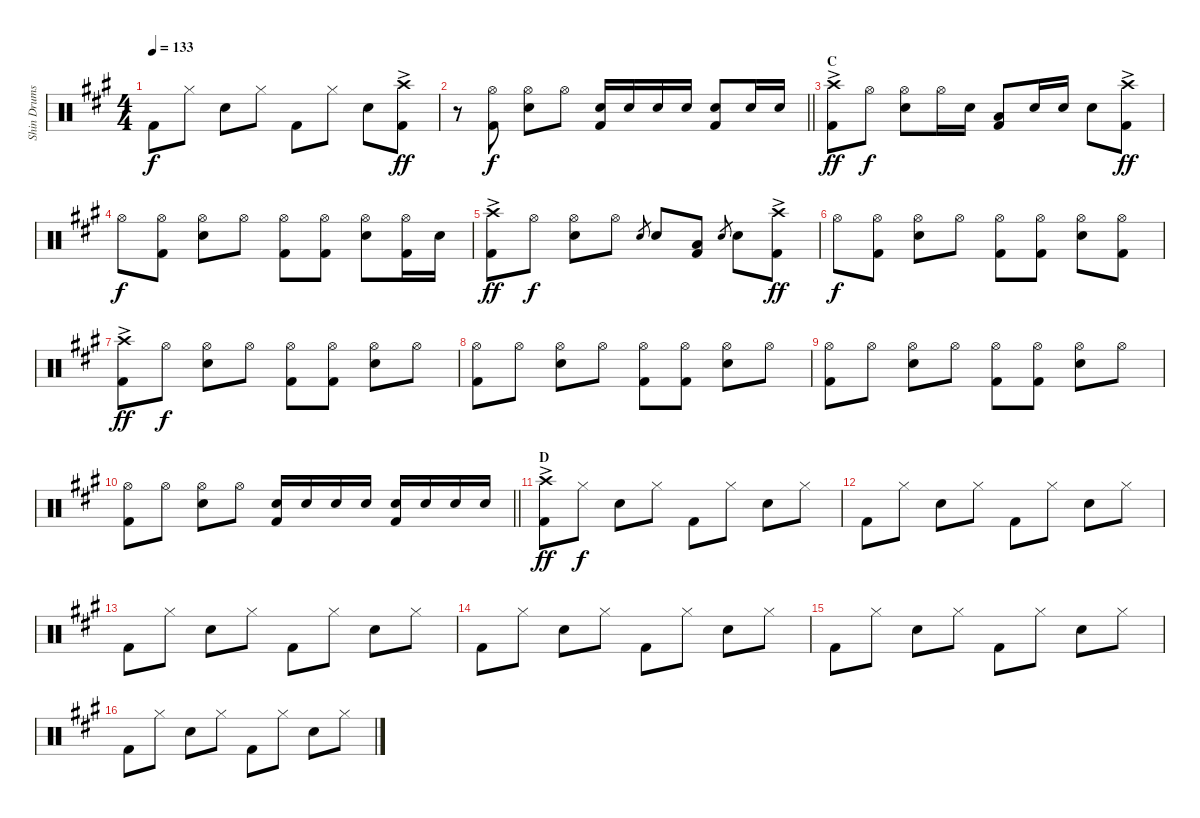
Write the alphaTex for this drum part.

\track ("Shin Drums" "Shin Drums") {instrument percussion}
\staff {score}
\articulation defaults
\ts (4 4)
\tempo 133
\clef neutral
\ks a "Kick (hit) 2".8{dy f} "Hi-Hat (closed)".8 "Snare (hit) 2".8 "Hi-Hat (closed)".8 "Kick (hit) 2".8 "Hi-Hat (closed)".8 "Snare (hit) 2".8
("Crash high (hit)"{ac} "Kick (hit) 2").8{dy ff} |
\barLineRight lightlight
r.8 ("Hi-Hat (open)" "Kick (hit) 2").8{dy f} ("Hi-Hat (open)" "Snare (hit) 2").8 "Hi-Hat (open)".8 ("Snare (hit) 2" "Kick (hit) 2").16 "Snare (hit) 2".16 "Snare (hit) 2".16 "Snare (hit) 2".16 ("Snare (hit) 2" "Kick (hit) 2").8 "Snare (hit) 2".16 "Snare (hit) 2".16 |
\section ("" "C")
("Crash high (hit)"{ac} "Kick (hit) 2").8{dy ff} "Hi-Hat (open)".8{dy f} ("Hi-Hat (open)" "Snare (hit) 2").8 "Hi-Hat (open)".16 "Snare (hit) 2".16 ("Low Tom (hit)" "Kick (hit) 2").8 "Snare (hit) 2".16 "Snare (hit) 2".16 "Snare (hit) 2".8 ("Crash high (hit)"{ac} "Kick (hit) 2").8{dy ff} |
"Hi-Hat (open)".8{dy f} ("Hi-Hat (open)" "Kick (hit) 2").8 ("Hi-Hat (open)" "Snare (hit) 2").8 "Hi-Hat (open)".8 ("Hi-Hat (open)" "Kick (hit) 2").8 ("Hi-Hat (open)" "Kick (hit) 2").8 ("Hi-Hat (open)" "Snare (hit) 2").8 ("Hi-Hat (open)" "Kick (hit) 2").16 "Snare (hit) 2".16 |
("Crash high (hit)"{ac} "Kick (hit) 2").8{dy ff} "Hi-Hat (open)".8{dy f} ("Hi-Hat (open)" "Snare (hit) 2").8 "Hi-Hat (open)".8 "Snare (hit) 2".8{gr} "Snare (hit) 2".8 ("Low Tom (hit)" "Kick (hit) 2").8 "Snare (hit) 2".8{gr} "Snare (hit) 2".8 ("Crash high (hit)"{ac} "Kick (hit) 2").8{dy ff} |
"Hi-Hat (open)".8{dy f} ("Hi-Hat (open)" "Kick (hit) 2").8 ("Hi-Hat (open)" "Snare (hit) 2").8 "Hi-Hat (open)".8 ("Hi-Hat (open)" "Kick (hit) 2").8 ("Hi-Hat (open)" "Kick (hit) 2").8 ("Hi-Hat (open)" "Snare (hit) 2").8 ("Hi-Hat (open)" "Kick (hit) 2").8 |
("Crash high (hit)"{ac} "Kick (hit) 2").8{dy ff} "Hi-Hat (open)".8{dy f} ("Hi-Hat (open)" "Snare (hit) 2").8 "Hi-Hat (open)".8 ("Hi-Hat (open)" "Kick (hit) 2").8 ("Hi-Hat (open)" "Kick (hit) 2").8 ("Hi-Hat (open)" "Snare (hit) 2").8 "Hi-Hat (open)".8 |
("Hi-Hat (open)" "Kick (hit) 2").8 "Hi-Hat (open)".8 ("Hi-Hat (open)" "Snare (hit) 2").8 "Hi-Hat (open)".8 ("Hi-Hat (open)" "Kick (hit) 2").8 ("Hi-Hat (open)" "Kick (hit) 2").8 ("Hi-Hat (open)" "Snare (hit) 2").8 "Hi-Hat (open)".8 |
("Hi-Hat (open)" "Kick (hit) 2").8 "Hi-Hat (open)".8 ("Hi-Hat (open)" "Snare (hit) 2").8 "Hi-Hat (open)".8 ("Hi-Hat (open)" "Kick (hit) 2").8 ("Hi-Hat (open)" "Kick (hit) 2").8 ("Hi-Hat (open)" "Snare (hit) 2").8 "Hi-Hat (open)".8 |
\barLineRight lightlight
("Hi-Hat (open)" "Kick (hit) 2").8 "Hi-Hat (open)".8 ("Hi-Hat (open)" "Snare (hit) 2").8 "Hi-Hat (open)".8 ("Snare (hit) 2" "Kick (hit) 2").16 "Snare (hit) 2".16 "Snare (hit) 2".16 "Snare (hit) 2".16 ("Snare (hit) 2" "Kick (hit) 2").16 "Snare (hit) 2".16 "Snare (hit) 2".16 "Snare (hit) 2".16 |
\section ("" "D")
("Crash high (hit)"{ac} "Kick (hit) 2").8{dy ff} "Hi-Hat (closed)".8{dy f} "Snare (hit) 2".8 "Hi-Hat (closed)".8 "Kick (hit) 2".8 "Hi-Hat (closed)".8 "Snare (hit) 2".8 "Hi-Hat (closed)".8 |
"Kick (hit) 2".8 "Hi-Hat (closed)".8 "Snare (hit) 2".8 "Hi-Hat (closed)".8 "Kick (hit) 2".8 "Hi-Hat (closed)".8 "Snare (hit) 2".8 "Hi-Hat (closed)".8 |
"Kick (hit) 2".8 "Hi-Hat (closed)".8 "Snare (hit) 2".8 "Hi-Hat (closed)".8 "Kick (hit) 2".8 "Hi-Hat (closed)".8 "Snare (hit) 2".8 "Hi-Hat (closed)".8 |
"Kick (hit) 2".8 "Hi-Hat (closed)".8 "Snare (hit) 2".8 "Hi-Hat (closed)".8 "Kick (hit) 2".8 "Hi-Hat (closed)".8 "Snare (hit) 2".8 "Hi-Hat (closed)".8 |
"Kick (hit) 2".8 "Hi-Hat (closed)".8 "Snare (hit) 2".8 "Hi-Hat (closed)".8 "Kick (hit) 2".8 "Hi-Hat (closed)".8 "Snare (hit) 2".8 "Hi-Hat (closed)".8 |
"Kick (hit) 2".8 "Hi-Hat (closed)".8 "Snare (hit) 2".8 "Hi-Hat (closed)".8 "Kick (hit) 2".8 "Hi-Hat (closed)".8 "Snare (hit) 2".8 "Hi-Hat (closed)".8
